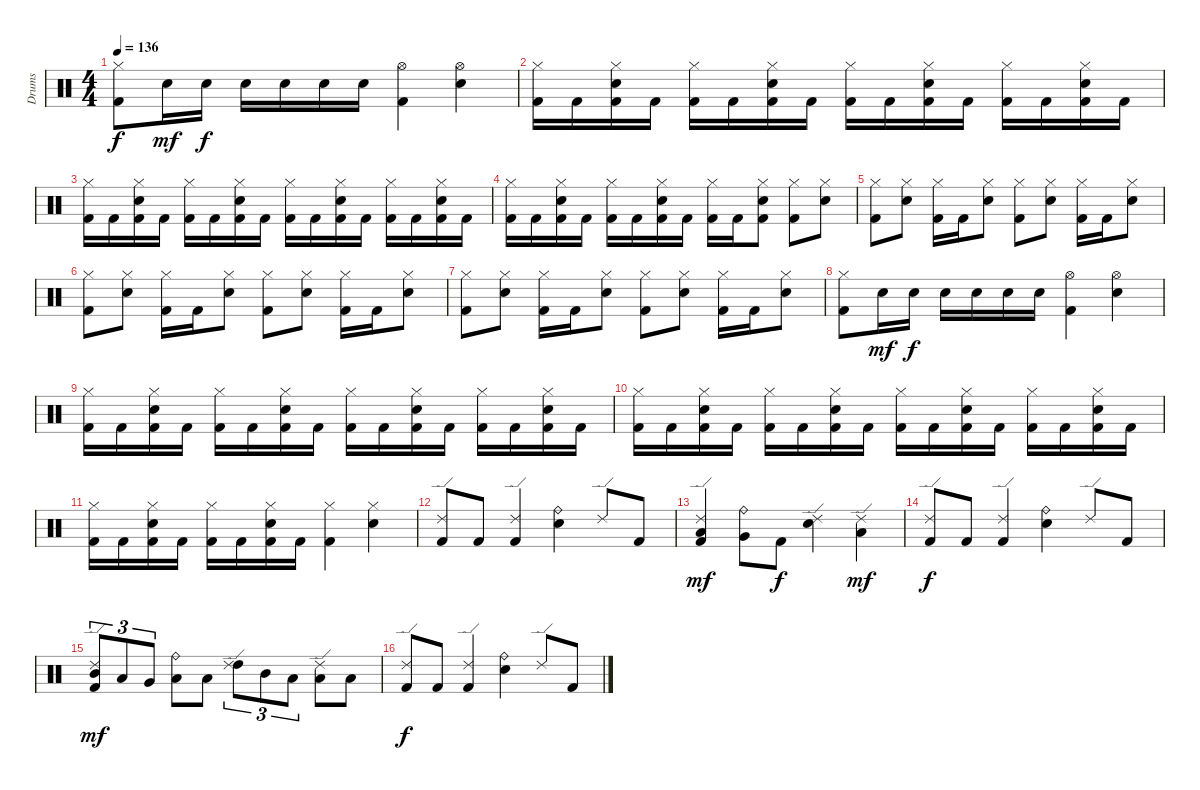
\track ("Drums" "Drums") {instrument percussion}
\staff {score}
\articulation defaults
\ts (4 4)
\tempo 136
\clef neutral
\ks c
("Kick (hit) 2" "Hi-Hat (closed)").8{dy f} "Snare (hit) 2".16{dy mf} "Snare (hit) 2".16{dy f} "Snare (hit) 2".16 "Snare (hit) 2".16 "Snare (hit) 2".16 "Snare (hit) 2".16 ("Kick (hit) 2" "Hi-Hat (open)").4 ("Snare (hit) 2" "Hi-Hat (open)").4 |
("Kick (hit) 2" "Hi-Hat (closed)").16 "Kick (hit) 2".16 ("Kick (hit) 2" "Snare (hit) 2" "Hi-Hat (closed)").16 "Kick (hit) 2".16 ("Kick (hit) 2" "Hi-Hat (closed)").16 "Kick (hit) 2".16 ("Kick (hit) 2" "Snare (hit) 2" "Hi-Hat (closed)").16 "Kick (hit) 2".16 ("Kick (hit) 2" "Hi-Hat (closed)").16 "Kick (hit) 2".16 ("Kick (hit) 2" "Snare (hit) 2" "Hi-Hat (closed)").16 "Kick (hit) 2".16 ("Kick (hit) 2" "Hi-Hat (closed)").16 "Kick (hit) 2".16 ("Kick (hit) 2" "Snare (hit) 2" "Hi-Hat (closed)").16 "Kick (hit) 2".16 |
("Kick (hit) 2" "Hi-Hat (closed)").16 "Kick (hit) 2".16 ("Kick (hit) 2" "Snare (hit) 2" "Hi-Hat (closed)").16 "Kick (hit) 2".16 ("Kick (hit) 2" "Hi-Hat (closed)").16 "Kick (hit) 2".16 ("Kick (hit) 2" "Snare (hit) 2" "Hi-Hat (closed)").16 "Kick (hit) 2".16 ("Kick (hit) 2" "Hi-Hat (closed)").16 "Kick (hit) 2".16 ("Kick (hit) 2" "Snare (hit) 2" "Hi-Hat (closed)").16 "Kick (hit) 2".16 ("Kick (hit) 2" "Hi-Hat (closed)").16 "Kick (hit) 2".16 ("Kick (hit) 2" "Snare (hit) 2" "Hi-Hat (closed)").16 "Kick (hit) 2".16 |
("Kick (hit) 2" "Hi-Hat (closed)").16 "Kick (hit) 2".16 ("Kick (hit) 2" "Snare (hit) 2" "Hi-Hat (closed)").16 "Kick (hit) 2".16 ("Kick (hit) 2" "Hi-Hat (closed)").16 "Kick (hit) 2".16 ("Kick (hit) 2" "Snare (hit) 2" "Hi-Hat (closed)").16 "Kick (hit) 2".16 ("Kick (hit) 2" "Hi-Hat (closed)").16 "Kick (hit) 2".16 ("Kick (hit) 2" "Snare (hit) 2" "Hi-Hat (closed)").8 ("Kick (hit) 2" "Hi-Hat (closed)").8 ("Snare (hit) 2" "Hi-Hat (closed)").8 |
("Kick (hit) 2" "Hi-Hat (closed)").8 ("Snare (hit) 2" "Hi-Hat (closed)").8 ("Kick (hit) 2" "Hi-Hat (closed)").16 "Kick (hit) 2".16 ("Snare (hit) 2" "Hi-Hat (closed)").8 ("Kick (hit) 2" "Hi-Hat (closed)").8 ("Snare (hit) 2" "Hi-Hat (closed)").8 ("Kick (hit) 2" "Hi-Hat (closed)").16 "Kick (hit) 2".16 ("Snare (hit) 2" "Hi-Hat (closed)").8 |
("Kick (hit) 2" "Hi-Hat (closed)").8 ("Snare (hit) 2" "Hi-Hat (closed)").8 ("Kick (hit) 2" "Hi-Hat (closed)").16 "Kick (hit) 2".16 ("Snare (hit) 2" "Hi-Hat (closed)").8 ("Kick (hit) 2" "Hi-Hat (closed)").8 ("Snare (hit) 2" "Hi-Hat (closed)").8 ("Kick (hit) 2" "Hi-Hat (closed)").16 "Kick (hit) 2".16 ("Snare (hit) 2" "Hi-Hat (closed)").8 |
("Kick (hit) 2" "Hi-Hat (closed)").8 ("Snare (hit) 2" "Hi-Hat (closed)").8 ("Kick (hit) 2" "Hi-Hat (closed)").16 "Kick (hit) 2".16 ("Snare (hit) 2" "Hi-Hat (closed)").8 ("Kick (hit) 2" "Hi-Hat (closed)").8 ("Snare (hit) 2" "Hi-Hat (closed)").8 ("Kick (hit) 2" "Hi-Hat (closed)").16 "Kick (hit) 2".16 ("Snare (hit) 2" "Hi-Hat (closed)").8 |
("Kick (hit) 2" "Hi-Hat (closed)").8 "Snare (hit) 2".16{dy mf} "Snare (hit) 2".16{dy f} "Snare (hit) 2".16 "Snare (hit) 2".16 "Snare (hit) 2".16 "Snare (hit) 2".16 ("Kick (hit) 2" "Hi-Hat (open)").4 ("Snare (hit) 2" "Hi-Hat (open)").4 |
("Kick (hit) 2" "Hi-Hat (closed)").16 "Kick (hit) 2".16 ("Kick (hit) 2" "Snare (hit) 2" "Hi-Hat (closed)").16 "Kick (hit) 2".16 ("Kick (hit) 2" "Hi-Hat (closed)").16 "Kick (hit) 2".16 ("Kick (hit) 2" "Snare (hit) 2" "Hi-Hat (closed)").16 "Kick (hit) 2".16 ("Kick (hit) 2" "Hi-Hat (closed)").16 "Kick (hit) 2".16 ("Kick (hit) 2" "Snare (hit) 2" "Hi-Hat (closed)").16 "Kick (hit) 2".16 ("Kick (hit) 2" "Hi-Hat (closed)").16 "Kick (hit) 2".16 ("Kick (hit) 2" "Snare (hit) 2" "Hi-Hat (closed)").16 "Kick (hit) 2".16 |
("Kick (hit) 2" "Hi-Hat (closed)").16 "Kick (hit) 2".16 ("Kick (hit) 2" "Snare (hit) 2" "Hi-Hat (closed)").16 "Kick (hit) 2".16 ("Kick (hit) 2" "Hi-Hat (closed)").16 "Kick (hit) 2".16 ("Kick (hit) 2" "Snare (hit) 2" "Hi-Hat (closed)").16 "Kick (hit) 2".16 ("Kick (hit) 2" "Hi-Hat (closed)").16 "Kick (hit) 2".16 ("Kick (hit) 2" "Snare (hit) 2" "Hi-Hat (closed)").16 "Kick (hit) 2".16 ("Kick (hit) 2" "Hi-Hat (closed)").16 "Kick (hit) 2".16 ("Kick (hit) 2" "Snare (hit) 2" "Hi-Hat (closed)").16 "Kick (hit) 2".16 |
("Kick (hit) 2" "Hi-Hat (closed)").16 "Kick (hit) 2".16 ("Kick (hit) 2" "Snare (hit) 2" "Hi-Hat (closed)").16 "Kick (hit) 2".16 ("Kick (hit) 2" "Hi-Hat (closed)").16 "Kick (hit) 2".16 ("Kick (hit) 2" "Snare (hit) 2" "Hi-Hat (closed)").16 "Kick (hit) 2".16 ("Kick (hit) 2" "Hi-Hat (closed)").4 ("Snare (hit) 2" "Hi-Hat (closed)").4 |
("Kick (hit) 2" "Ride (edge) 2").8 "Kick (hit) 2".8 ("Kick (hit) 2" "Ride (edge) 2").4 ("Snare (hit) 2" "Ride (bell)").4 "Ride (edge) 2".8 "Kick (hit) 2".8 |
("Kick (hit) 2" "Low Tom (hit)" "Ride (edge) 2").4{dy mf} ("Very Low Tom (hit)" "Ride (bell)").8 "Kick (hit) 2".8{dy f} ("Snare (hit) 2" "Ride (edge) 2").4 ("Low Floor Tom (hit)" "Ride (edge) 2").4{dy mf} |
("Kick (hit) 2" "Ride (edge) 2").8{dy f} "Kick (hit) 2".8 ("Kick (hit) 2" "Ride (edge) 2").4 ("Snare (hit) 2" "Ride (bell)").4 "Ride (edge) 2".8 "Kick (hit) 2".8 |
("Kick (hit) 2" "Mid Tom (hit)" "Ride (edge) 2").8{tu (3 2) dy mf} "Low Tom (hit)".8{tu (3 2)} "Very Low Tom (hit)".8{tu (3 2)} ("Low Floor Tom (hit)" "Ride (bell)").8 "Low Tom (hit)".8 ("High Tom (hit)" "Ride (edge) 2").8{tu (3 2)} "Mid Tom (hit)".8{tu (3 2)} "Low Tom (hit)".8{tu (3 2)} ("Low Floor Tom (hit)" "Ride (edge) 2").8 "Low Floor Tom (hit)".8 |
("Kick (hit) 2" "Ride (edge) 2").8{dy f} "Kick (hit) 2".8 ("Kick (hit) 2" "Ride (edge) 2").4 ("Snare (hit) 2" "Ride (bell)").4 "Ride (edge) 2".8 "Kick (hit) 2".8
